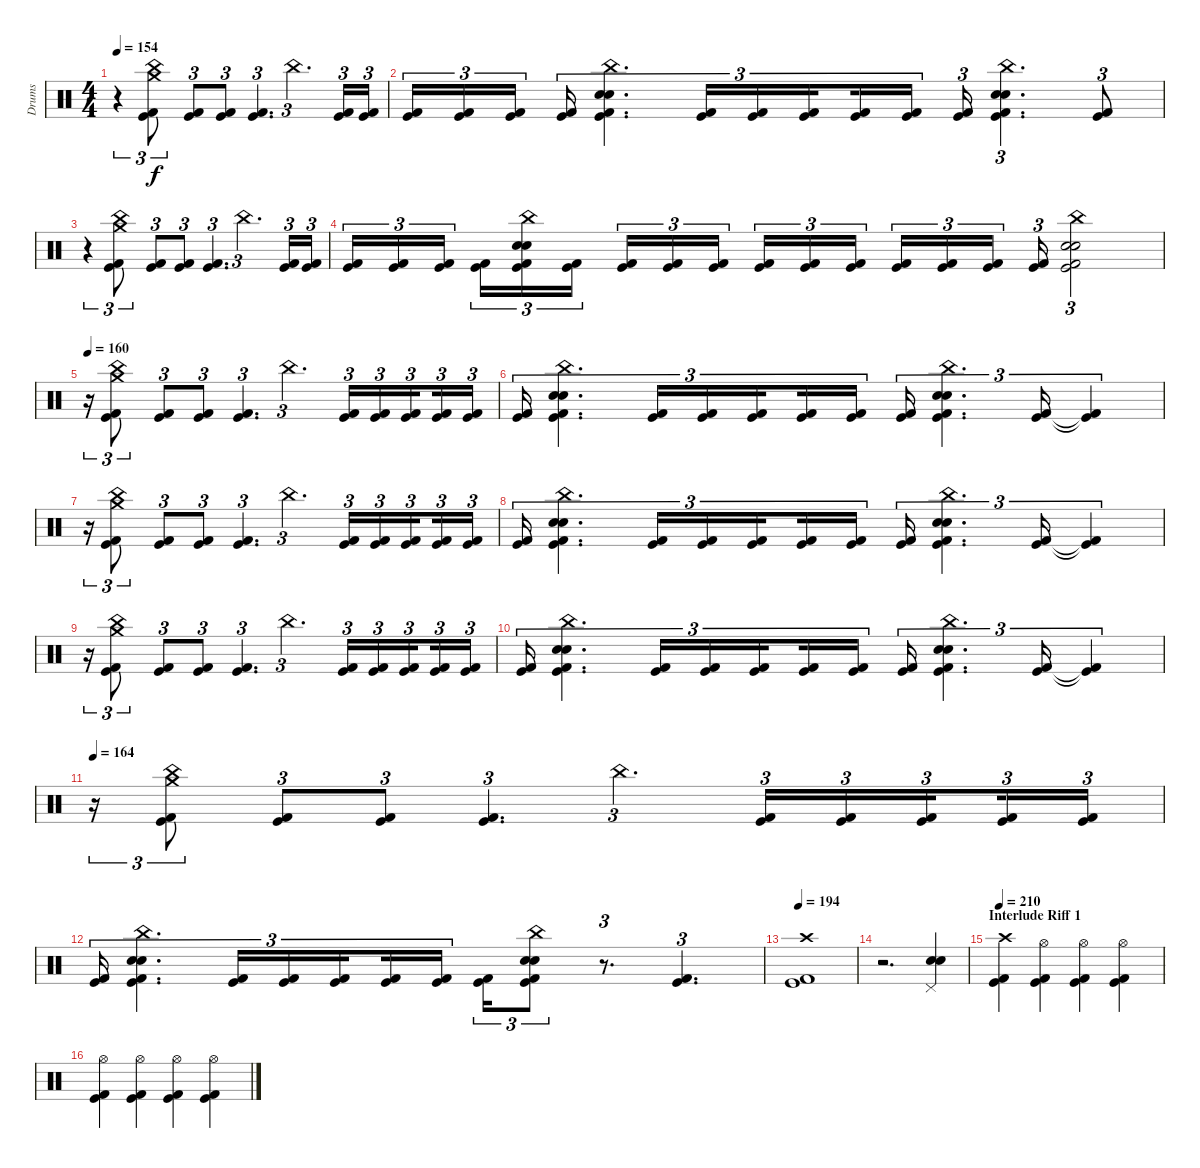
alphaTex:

\track ("Drums" "Drums") {instrument percussion}
\staff {score}
\articulation defaults
\ts (4 4)
\tempo 154
\clef neutral
\ks c
r.4{tu (3 2) dy f} ("China (hit)" "Crash medium (hit)" "Kick (hit) 2" "Kick (hit)").8{tu (3 2)} ("Kick (hit) 2" "Kick (hit)").8{tu (3 2)} ("Kick (hit) 2" "Kick (hit)").8{tu (3 2)} ("Kick (hit) 2" "Kick (hit)").4{d tu (3 2)} "China (hit)".4{d tu (3 2)} ("Kick (hit) 2" "Kick (hit)").16{tu (3 2)} ("Kick (hit) 2" "Kick (hit)").16{tu (3 2)} |
("Kick (hit) 2" "Kick (hit)").16{tu (3 2)} ("Kick (hit) 2" "Kick (hit)").16{tu (3 2)} ("Kick (hit) 2" "Kick (hit)").16{tu (3 2) beam splitsecondary} ("Kick (hit) 2" "Kick (hit)").16{tu (3 2)} ("China (hit)" "Electric Snare (hit)" "Electric Snare (hit)" "Kick (hit) 2" "Kick (hit)").4{d tu (3 2)} ("Kick (hit) 2" "Kick (hit)").16{tu (3 2)} ("Kick (hit) 2" "Kick (hit)").16{tu (3 2)} ("Kick (hit) 2" "Kick (hit)").16{tu (3 2) beam splitsecondary} ("Kick (hit) 2" "Kick (hit)").16{tu (3 2)} ("Kick (hit) 2" "Kick (hit)").16{tu (3 2)} ("Kick (hit) 2" "Kick (hit)").16{tu (3 2)} ("China (hit)" "Electric Snare (hit)" "Electric Snare (hit)" "Kick (hit) 2" "Kick (hit)").4{d tu (3 2)} ("Kick (hit) 2" "Kick (hit)").8{tu (3 2)} |
r.4{tu (3 2)} ("China (hit)" "Crash medium (hit)" "Kick (hit) 2" "Kick (hit)").8{tu (3 2)} ("Kick (hit) 2" "Kick (hit)").8{tu (3 2)} ("Kick (hit) 2" "Kick (hit)").8{tu (3 2)} ("Kick (hit) 2" "Kick (hit)").4{d tu (3 2)} "China (hit)".4{d tu (3 2)} ("Kick (hit) 2" "Kick (hit)").16{tu (3 2)} ("Kick (hit) 2" "Kick (hit)").16{tu (3 2)} |
("Kick (hit) 2" "Kick (hit)").16{tu (3 2)} ("Kick (hit) 2" "Kick (hit)").16{tu (3 2)} ("Kick (hit) 2" "Kick (hit)").16{tu (3 2) beam splitsecondary} ("Kick (hit) 2" "Kick (hit)").16{tu (3 2)} ("China (hit)" "Electric Snare (hit)" "Electric Snare (hit)" "Kick (hit) 2" "Kick (hit)").16{tu (3 2)} ("Kick (hit) 2" "Kick (hit)").16{tu (3 2)} ("Kick (hit) 2" "Kick (hit)").16{tu (3 2)} ("Kick (hit) 2" "Kick (hit)").16{tu (3 2)} ("Kick (hit) 2" "Kick (hit)").16{tu (3 2) beam splitsecondary} ("Kick (hit) 2" "Kick (hit)").16{tu (3 2)} ("Kick (hit) 2" "Kick (hit)").16{tu (3 2)} ("Kick (hit) 2" "Kick (hit)").16{tu (3 2)} ("Kick (hit) 2" "Kick (hit)").16{tu (3 2)} ("Kick (hit) 2" "Kick (hit)").16{tu (3 2)} ("Kick (hit) 2" "Kick (hit)").16{tu (3 2) beam splitsecondary} ("Kick (hit) 2" "Kick (hit)").16{tu (3 2)} ("China (hit)" "Electric Snare (hit)" "Electric Snare (hit)" "Kick (hit) 2" "Kick (hit)").2{tu (3 2)} |
\tempo 160
r.16{tu (3 2)} ("China (hit)" "Crash medium (hit)" "Kick (hit) 2" "Kick (hit)").8{tu (3 2)} ("Kick (hit) 2" "Kick (hit)").8{tu (3 2)} ("Kick (hit) 2" "Kick (hit)").8{tu (3 2)} ("Kick (hit) 2" "Kick (hit)").4{d tu (3 2)} "China (hit)".4{d tu (3 2)} ("Kick (hit) 2" "Kick (hit)").16{tu (3 2)} ("Kick (hit) 2" "Kick (hit)").16{tu (3 2)} ("Kick (hit) 2" "Kick (hit)").16{tu (3 2) beam splitsecondary} ("Kick (hit) 2" "Kick (hit)").16{tu (3 2)} ("Kick (hit) 2" "Kick (hit)").16{tu (3 2)} |
("Kick (hit) 2" "Kick (hit)").16{tu (3 2)} ("China (hit)" "Electric Snare (hit)" "Electric Snare (hit)" "Kick (hit) 2" "Kick (hit)").4{d tu (3 2)} ("Kick (hit) 2" "Kick (hit)").16{tu (3 2)} ("Kick (hit) 2" "Kick (hit)").16{tu (3 2)} ("Kick (hit) 2" "Kick (hit)").16{tu (3 2) beam splitsecondary} ("Kick (hit) 2" "Kick (hit)").16{tu (3 2)} ("Kick (hit) 2" "Kick (hit)").16{tu (3 2)} ("Kick (hit) 2" "Kick (hit)").16{tu (3 2)} ("China (hit)" "Electric Snare (hit)" "Electric Snare (hit)" "Kick (hit) 2" "Kick (hit)").4{d tu (3 2)} ("Kick (hit) 2" "Kick (hit)").16{tu (3 2)} ("Kick (hit) 2"{t} "Kick (hit)"{t}).4{tu (3 2)} |
r.16{tu (3 2)} ("China (hit)" "Crash medium (hit)" "Kick (hit) 2" "Kick (hit)").8{tu (3 2)} ("Kick (hit) 2" "Kick (hit)").8{tu (3 2)} ("Kick (hit) 2" "Kick (hit)").8{tu (3 2)} ("Kick (hit) 2" "Kick (hit)").4{d tu (3 2)} "China (hit)".4{d tu (3 2)} ("Kick (hit) 2" "Kick (hit)").16{tu (3 2)} ("Kick (hit) 2" "Kick (hit)").16{tu (3 2)} ("Kick (hit) 2" "Kick (hit)").16{tu (3 2) beam splitsecondary} ("Kick (hit) 2" "Kick (hit)").16{tu (3 2)} ("Kick (hit) 2" "Kick (hit)").16{tu (3 2)} |
("Kick (hit) 2" "Kick (hit)").16{tu (3 2)} ("China (hit)" "Electric Snare (hit)" "Electric Snare (hit)" "Kick (hit) 2" "Kick (hit)").4{d tu (3 2)} ("Kick (hit) 2" "Kick (hit)").16{tu (3 2)} ("Kick (hit) 2" "Kick (hit)").16{tu (3 2)} ("Kick (hit) 2" "Kick (hit)").16{tu (3 2) beam splitsecondary} ("Kick (hit) 2" "Kick (hit)").16{tu (3 2)} ("Kick (hit) 2" "Kick (hit)").16{tu (3 2)} ("Kick (hit) 2" "Kick (hit)").16{tu (3 2)} ("China (hit)" "Electric Snare (hit)" "Electric Snare (hit)" "Kick (hit) 2" "Kick (hit)").4{d tu (3 2)} ("Kick (hit) 2" "Kick (hit)").16{tu (3 2)} ("Kick (hit) 2"{t} "Kick (hit)"{t}).4{tu (3 2)} |
r.16{tu (3 2)} ("China (hit)" "Crash medium (hit)" "Kick (hit) 2" "Kick (hit)").8{tu (3 2)} ("Kick (hit) 2" "Kick (hit)").8{tu (3 2)} ("Kick (hit) 2" "Kick (hit)").8{tu (3 2)} ("Kick (hit) 2" "Kick (hit)").4{d tu (3 2)} "China (hit)".4{d tu (3 2)} ("Kick (hit) 2" "Kick (hit)").16{tu (3 2)} ("Kick (hit) 2" "Kick (hit)").16{tu (3 2)} ("Kick (hit) 2" "Kick (hit)").16{tu (3 2) beam splitsecondary} ("Kick (hit) 2" "Kick (hit)").16{tu (3 2)} ("Kick (hit) 2" "Kick (hit)").16{tu (3 2)} |
("Kick (hit) 2" "Kick (hit)").16{tu (3 2)} ("China (hit)" "Electric Snare (hit)" "Electric Snare (hit)" "Kick (hit) 2" "Kick (hit)").4{d tu (3 2)} ("Kick (hit) 2" "Kick (hit)").16{tu (3 2)} ("Kick (hit) 2" "Kick (hit)").16{tu (3 2)} ("Kick (hit) 2" "Kick (hit)").16{tu (3 2) beam splitsecondary} ("Kick (hit) 2" "Kick (hit)").16{tu (3 2)} ("Kick (hit) 2" "Kick (hit)").16{tu (3 2)} ("Kick (hit) 2" "Kick (hit)").16{tu (3 2)} ("China (hit)" "Electric Snare (hit)" "Electric Snare (hit)" "Kick (hit) 2" "Kick (hit)").4{d tu (3 2)} ("Kick (hit) 2" "Kick (hit)").16{tu (3 2)} ("Kick (hit) 2"{t} "Kick (hit)"{t}).4{tu (3 2)} |
\tempo 164
r.16{tu (3 2)} ("China (hit)" "Crash medium (hit)" "Kick (hit) 2" "Kick (hit)").8{tu (3 2)} ("Kick (hit) 2" "Kick (hit)").8{tu (3 2)} ("Kick (hit) 2" "Kick (hit)").8{tu (3 2)} ("Kick (hit) 2" "Kick (hit)").4{d tu (3 2)} "China (hit)".4{d tu (3 2)} ("Kick (hit) 2" "Kick (hit)").16{tu (3 2)} ("Kick (hit) 2" "Kick (hit)").16{tu (3 2)} ("Kick (hit) 2" "Kick (hit)").16{tu (3 2) beam splitsecondary} ("Kick (hit) 2" "Kick (hit)").16{tu (3 2)} ("Kick (hit) 2" "Kick (hit)").16{tu (3 2)} |
("Kick (hit) 2" "Kick (hit)").16{tu (3 2)} ("China (hit)" "Electric Snare (hit)" "Electric Snare (hit)" "Kick (hit) 2" "Kick (hit)").4{d tu (3 2)} ("Kick (hit) 2" "Kick (hit)").16{tu (3 2)} ("Kick (hit) 2" "Kick (hit)").16{tu (3 2)} ("Kick (hit) 2" "Kick (hit)").16{tu (3 2) beam splitsecondary} ("Kick (hit) 2" "Kick (hit)").16{tu (3 2)} ("Kick (hit) 2" "Kick (hit)").16{tu (3 2)} ("Kick (hit) 2" "Kick (hit)").16{tu (3 2)} ("China (hit)" "Electric Snare (hit)" "Electric Snare (hit)" "Kick (hit) 2" "Kick (hit)").8{tu (3 2)} r.8{d tu (3 2)} ("Kick (hit) 2" "Kick (hit)").4{d tu (3 2)} |
\tempo 194
("Crash high (hit)" "Kick (hit) 2" "Kick (hit)").1 |
r.2{d} ("Pedal Hi-Hat (hit)" "Electric Snare (hit)" "Electric Snare (hit)").4 |
\section ("" "Interlude Riff 1")
\tempo 210
("Crash high (hit)" "Kick (hit) 2" "Kick (hit)").4 ("Hi-Hat (open)" "Kick (hit) 2" "Kick (hit)").4 ("Hi-Hat (open)" "Kick (hit) 2" "Kick (hit)").4 ("Hi-Hat (open)" "Kick (hit) 2" "Kick (hit)").4 |
("Hi-Hat (open)" "Kick (hit) 2" "Kick (hit)").4 ("Hi-Hat (open)" "Kick (hit) 2" "Kick (hit)").4 ("Hi-Hat (open)" "Kick (hit) 2" "Kick (hit)").4 ("Hi-Hat (open)" "Kick (hit) 2" "Kick (hit)").4
